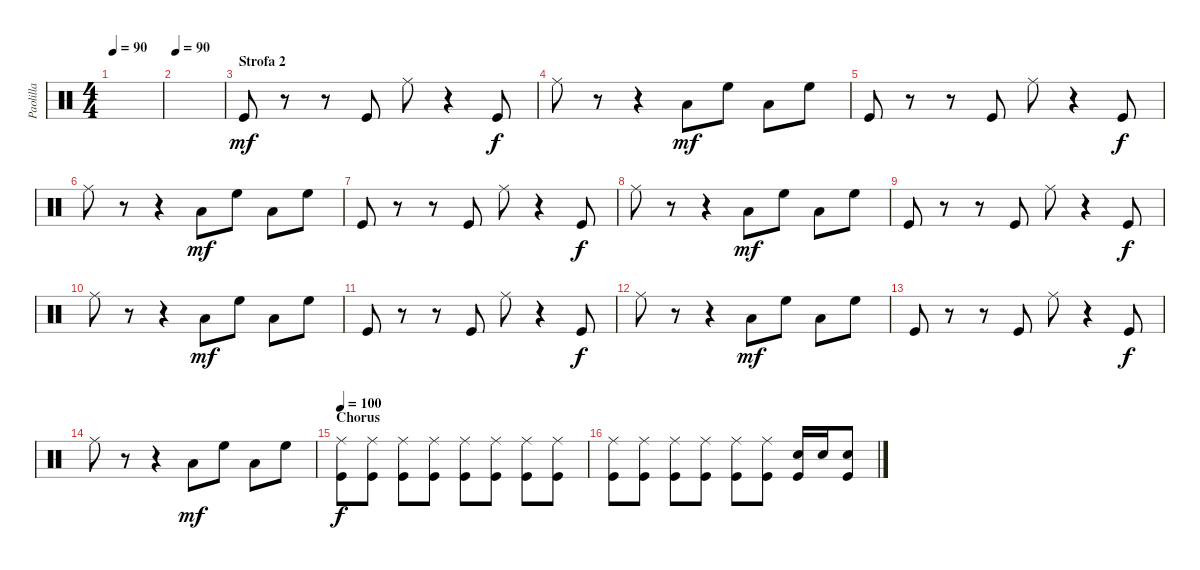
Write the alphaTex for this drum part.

\track ("Paolilla" "Paolilla") {instrument percussion}
\staff {score}
\articulation defaults
\ts (4 4)
\tempo 90
\clef neutral
\ks c
|
\tempo 90
|
\section ("" "Strofa 2")
"Kick (hit)".8{dy mf} r.8 r.8 "Kick (hit)".8 "Ride (middle)".8 r.4 "Kick (hit)".8{dy f} |
"Ride (middle)".8 r.8 r.4 "Low Tom (hit)".8{dy mf} "High Floor Tom (hit)".8 "Low Tom (hit)".8 "High Floor Tom (hit)".8 |
"Kick (hit)".8 r.8 r.8 "Kick (hit)".8 "Ride (middle)".8 r.4 "Kick (hit)".8{dy f} |
"Ride (middle)".8 r.8 r.4 "Low Tom (hit)".8{dy mf} "High Floor Tom (hit)".8 "Low Tom (hit)".8 "High Floor Tom (hit)".8 |
"Kick (hit)".8 r.8 r.8 "Kick (hit)".8 "Ride (middle)".8 r.4 "Kick (hit)".8{dy f} |
"Ride (middle)".8 r.8 r.4 "Low Tom (hit)".8{dy mf} "High Floor Tom (hit)".8 "Low Tom (hit)".8 "High Floor Tom (hit)".8 |
"Kick (hit)".8 r.8 r.8 "Kick (hit)".8 "Ride (middle)".8 r.4 "Kick (hit)".8{dy f} |
"Ride (middle)".8 r.8 r.4 "Low Tom (hit)".8{dy mf} "High Floor Tom (hit)".8 "Low Tom (hit)".8 "High Floor Tom (hit)".8 |
"Kick (hit)".8 r.8 r.8 "Kick (hit)".8 "Ride (middle)".8 r.4 "Kick (hit)".8{dy f} |
"Ride (middle)".8 r.8 r.4 "Low Tom (hit)".8{dy mf} "High Floor Tom (hit)".8 "Low Tom (hit)".8 "High Floor Tom (hit)".8 |
"Kick (hit)".8 r.8 r.8 "Kick (hit)".8 "Ride (middle)".8 r.4 "Kick (hit)".8{dy f} |
"Ride (middle)".8 r.8 r.4 "Low Tom (hit)".8{dy mf} "High Floor Tom (hit)".8 "Low Tom (hit)".8 "High Floor Tom (hit)".8 |
\section ("" "Chorus")
\tempo 100
("Ride (middle)" "Kick (hit)").8{dy f} ("Ride (middle)" "Kick (hit)").8 ("Ride (middle)" "Kick (hit)").8 ("Ride (middle)" "Kick (hit)").8 ("Ride (middle)" "Kick (hit)").8 ("Ride (middle)" "Kick (hit)").8 ("Ride (middle)" "Kick (hit)").8 ("Ride (middle)" "Kick (hit)").8 |
("Ride (middle)" "Kick (hit)").8 ("Ride (middle)" "Kick (hit)").8 ("Ride (middle)" "Kick (hit)").8 ("Ride (middle)" "Kick (hit)").8 ("Ride (middle)" "Kick (hit)").8 ("Ride (middle)" "Kick (hit)").8 ("Snare (hit) 2" "Kick (hit)").16 "Snare (hit) 2".16 ("Snare (hit) 2" "Kick (hit)").8
